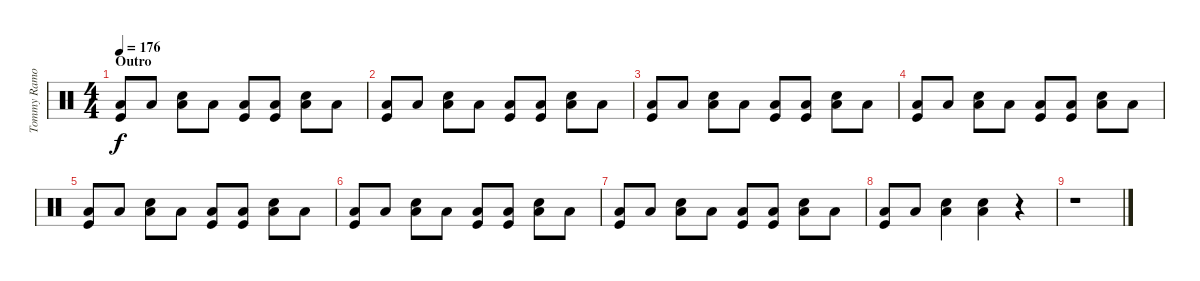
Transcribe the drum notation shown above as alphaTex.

\track ("Tommy Ramone" "Tommy Ramo") {instrument percussion}
\staff {score}
\articulation defaults
\ts (4 4)
\section ("" "Outro")
\tempo 176
\clef neutral
\ks c
("Low Floor Tom (hit)" "Kick (hit)").8{dy f} "Low Floor Tom (hit)".8 ("Snare (hit) 2" "Low Floor Tom (hit)").8 "Low Floor Tom (hit)".8 ("Low Floor Tom (hit)" "Kick (hit)").8 ("Low Floor Tom (hit)" "Kick (hit)").8 ("Snare (hit) 2" "Low Floor Tom (hit)").8 "Low Floor Tom (hit)".8 |
("Low Floor Tom (hit)" "Kick (hit)").8 "Low Floor Tom (hit)".8 ("Snare (hit) 2" "Low Floor Tom (hit)").8 "Low Floor Tom (hit)".8 ("Low Floor Tom (hit)" "Kick (hit)").8 ("Low Floor Tom (hit)" "Kick (hit)").8 ("Snare (hit) 2" "Low Floor Tom (hit)").8 "Low Floor Tom (hit)".8 |
("Low Floor Tom (hit)" "Kick (hit)").8 "Low Floor Tom (hit)".8 ("Snare (hit) 2" "Low Floor Tom (hit)").8 "Low Floor Tom (hit)".8 ("Low Floor Tom (hit)" "Kick (hit)").8 ("Low Floor Tom (hit)" "Kick (hit)").8 ("Snare (hit) 2" "Low Floor Tom (hit)").8 "Low Floor Tom (hit)".8 |
("Low Floor Tom (hit)" "Kick (hit)").8 "Low Floor Tom (hit)".8 ("Snare (hit) 2" "Low Floor Tom (hit)").8 "Low Floor Tom (hit)".8 ("Low Floor Tom (hit)" "Kick (hit)").8 ("Low Floor Tom (hit)" "Kick (hit)").8 ("Snare (hit) 2" "Low Floor Tom (hit)").8 "Low Floor Tom (hit)".8 |
("Low Floor Tom (hit)" "Kick (hit)").8 "Low Floor Tom (hit)".8 ("Snare (hit) 2" "Low Floor Tom (hit)").8 "Low Floor Tom (hit)".8 ("Low Floor Tom (hit)" "Kick (hit)").8 ("Low Floor Tom (hit)" "Kick (hit)").8 ("Snare (hit) 2" "Low Floor Tom (hit)").8 "Low Floor Tom (hit)".8 |
("Low Floor Tom (hit)" "Kick (hit)").8 "Low Floor Tom (hit)".8 ("Snare (hit) 2" "Low Floor Tom (hit)").8 "Low Floor Tom (hit)".8 ("Low Floor Tom (hit)" "Kick (hit)").8 ("Low Floor Tom (hit)" "Kick (hit)").8 ("Snare (hit) 2" "Low Floor Tom (hit)").8 "Low Floor Tom (hit)".8 |
("Low Floor Tom (hit)" "Kick (hit)").8 "Low Floor Tom (hit)".8 ("Snare (hit) 2" "Low Floor Tom (hit)").8 "Low Floor Tom (hit)".8 ("Low Floor Tom (hit)" "Kick (hit)").8 ("Low Floor Tom (hit)" "Kick (hit)").8 ("Snare (hit) 2" "Low Floor Tom (hit)").8 "Low Floor Tom (hit)".8 |
("Low Floor Tom (hit)" "Kick (hit)").8 "Low Floor Tom (hit)".8 ("Snare (hit) 2" "Low Floor Tom (hit)").4 ("Snare (hit) 2" "Low Floor Tom (hit)").4 r.4 |
r.1
